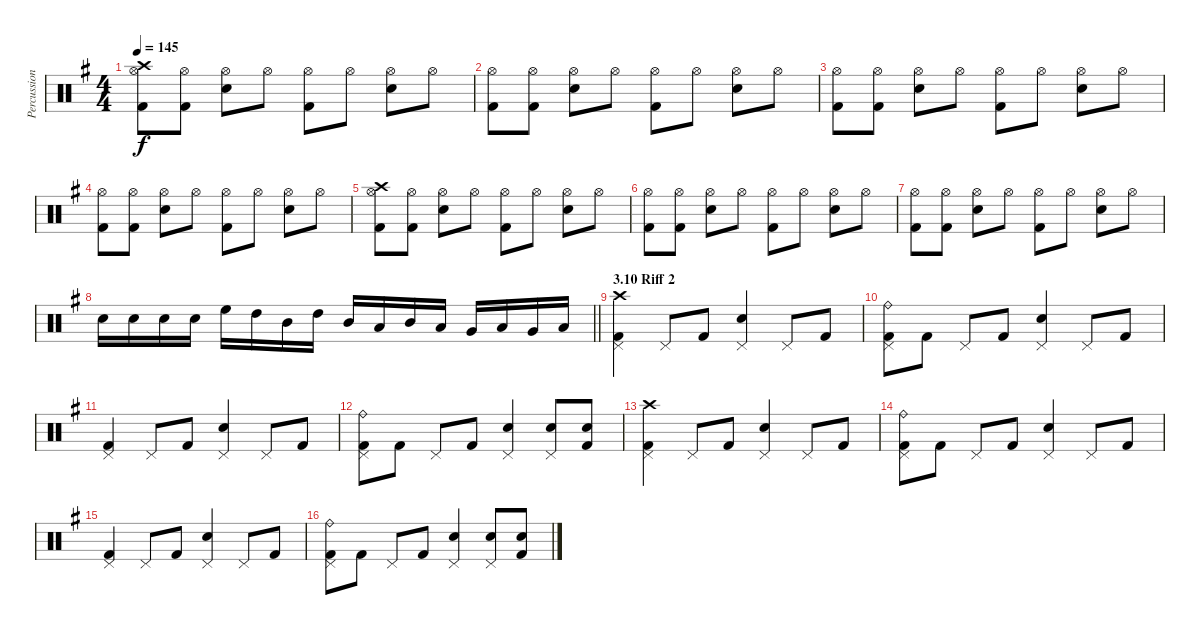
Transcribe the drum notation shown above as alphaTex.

\track ("Percussion" "Percussion") {instrument percussion}
\staff {score}
\articulation defaults
\ts (4 4)
\tempo 145
\clef neutral
\ks eminor
("Crash high (hit)" "Hi-Hat (open)" "Kick (hit) 2").8{dy f} ("Hi-Hat (open)" "Kick (hit) 2").8 ("Hi-Hat (open)" "Electric Snare (hit)").8 "Hi-Hat (open)".8 ("Hi-Hat (open)" "Kick (hit) 2").8 "Hi-Hat (open)".8 ("Hi-Hat (open)" "Electric Snare (hit)").8 "Hi-Hat (open)".8 |
("Hi-Hat (open)" "Kick (hit) 2").8 ("Hi-Hat (open)" "Kick (hit) 2").8 ("Hi-Hat (open)" "Electric Snare (hit)").8 "Hi-Hat (open)".8 ("Hi-Hat (open)" "Kick (hit) 2").8 "Hi-Hat (open)".8 ("Hi-Hat (open)" "Electric Snare (hit)").8 "Hi-Hat (open)".8 |
("Hi-Hat (open)" "Kick (hit) 2").8 ("Hi-Hat (open)" "Kick (hit) 2").8 ("Hi-Hat (open)" "Electric Snare (hit)").8 "Hi-Hat (open)".8 ("Hi-Hat (open)" "Kick (hit) 2").8 "Hi-Hat (open)".8 ("Hi-Hat (open)" "Electric Snare (hit)").8 "Hi-Hat (open)".8 |
("Hi-Hat (open)" "Kick (hit) 2").8 ("Hi-Hat (open)" "Kick (hit) 2").8 ("Hi-Hat (open)" "Electric Snare (hit)").8 "Hi-Hat (open)".8 ("Hi-Hat (open)" "Kick (hit) 2").8 "Hi-Hat (open)".8 ("Hi-Hat (open)" "Electric Snare (hit)").8 "Hi-Hat (open)".8 |
("Crash high (hit)" "Hi-Hat (open)" "Kick (hit) 2").8 ("Hi-Hat (open)" "Kick (hit) 2").8 ("Hi-Hat (open)" "Electric Snare (hit)").8 "Hi-Hat (open)".8 ("Hi-Hat (open)" "Kick (hit) 2").8 "Hi-Hat (open)".8 ("Hi-Hat (open)" "Electric Snare (hit)").8 "Hi-Hat (open)".8 |
("Hi-Hat (open)" "Kick (hit) 2").8 ("Hi-Hat (open)" "Kick (hit) 2").8 ("Hi-Hat (open)" "Electric Snare (hit)").8 "Hi-Hat (open)".8 ("Hi-Hat (open)" "Kick (hit) 2").8 "Hi-Hat (open)".8 ("Hi-Hat (open)" "Electric Snare (hit)").8 "Hi-Hat (open)".8 |
("Hi-Hat (open)" "Kick (hit) 2").8 ("Hi-Hat (open)" "Kick (hit) 2").8 ("Hi-Hat (open)" "Electric Snare (hit)").8 "Hi-Hat (open)".8 ("Hi-Hat (open)" "Kick (hit) 2").8 "Hi-Hat (open)".8 ("Hi-Hat (open)" "Electric Snare (hit)").8 "Hi-Hat (open)".8 |
\barLineRight lightlight "Electric Snare (hit)".16 "Electric Snare (hit)".16 "Electric Snare (hit)".16 "Electric Snare (hit)".16 "High Floor Tom (hit)".16 "High Tom (hit)".16 "Mid Tom (hit)".16 "High Tom (hit)".16 "Mid Tom (hit)".16 "Low Tom (hit)".16 "Mid Tom (hit)".16 "Low Tom (hit)".16 "Very Low Tom (hit)".16 "Low Tom (hit)".16 "Very Low Tom (hit)".16 "Low Floor Tom (hit)".16
|
\section ("" "3.10 Riff 2")
("Crash high (hit)" "Pedal Hi-Hat (hit)" "Kick (hit) 2").4 "Pedal Hi-Hat (hit)".8 "Kick (hit) 2".8 ("Pedal Hi-Hat (hit)" "Electric Snare (hit)").4 "Pedal Hi-Hat (hit)".8 "Kick (hit) 2".8 |
("Ride (bell)" "Pedal Hi-Hat (hit)" "Kick (hit) 2").8 "Kick (hit) 2".8 "Pedal Hi-Hat (hit)".8 "Kick (hit) 2".8 ("Pedal Hi-Hat (hit)" "Electric Snare (hit)").4 "Pedal Hi-Hat (hit)".8 "Kick (hit) 2".8 |
("Pedal Hi-Hat (hit)" "Kick (hit) 2").4 "Pedal Hi-Hat (hit)".8 "Kick (hit) 2".8 ("Pedal Hi-Hat (hit)" "Electric Snare (hit)").4 "Pedal Hi-Hat (hit)".8 "Kick (hit) 2".8 |
("Ride (bell)" "Pedal Hi-Hat (hit)" "Kick (hit) 2").8 "Kick (hit) 2".8 "Pedal Hi-Hat (hit)".8 "Kick (hit) 2".8 ("Pedal Hi-Hat (hit)" "Electric Snare (hit)").4 ("Pedal Hi-Hat (hit)" "Electric Snare (hit)").8 ("Electric Snare (hit)" "Kick (hit) 2").8 |
("Crash high (hit)" "Pedal Hi-Hat (hit)" "Kick (hit) 2").4 "Pedal Hi-Hat (hit)".8 "Kick (hit) 2".8 ("Pedal Hi-Hat (hit)" "Electric Snare (hit)").4 "Pedal Hi-Hat (hit)".8 "Kick (hit) 2".8 |
("Ride (bell)" "Pedal Hi-Hat (hit)" "Kick (hit) 2").8 "Kick (hit) 2".8 "Pedal Hi-Hat (hit)".8 "Kick (hit) 2".8 ("Pedal Hi-Hat (hit)" "Electric Snare (hit)").4 "Pedal Hi-Hat (hit)".8 "Kick (hit) 2".8 |
("Pedal Hi-Hat (hit)" "Kick (hit) 2").4 "Pedal Hi-Hat (hit)".8 "Kick (hit) 2".8 ("Pedal Hi-Hat (hit)" "Electric Snare (hit)").4 "Pedal Hi-Hat (hit)".8 "Kick (hit) 2".8 |
("Ride (bell)" "Pedal Hi-Hat (hit)" "Kick (hit) 2").8 "Kick (hit) 2".8 "Pedal Hi-Hat (hit)".8 "Kick (hit) 2".8 ("Pedal Hi-Hat (hit)" "Electric Snare (hit)").4 ("Pedal Hi-Hat (hit)" "Electric Snare (hit)").8 ("Electric Snare (hit)" "Kick (hit) 2").8
